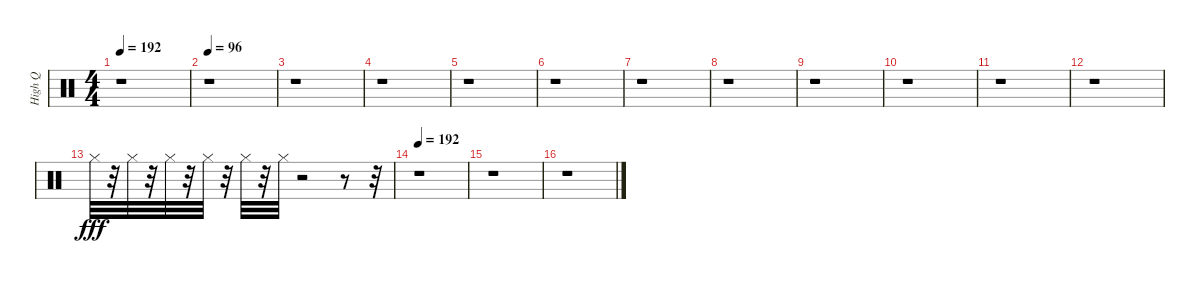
\track ("High Q" "High Q") {instrument percussion}
\staff {score}
\articulation defaults
\ts (4 4)
\tempo 192
\clef neutral
\ks c
r.1{dy fff} |
\tempo 96
r.1 |
r.1 |
r.1 |
r.1 |
r.1 |
r.1 |
r.1 |
r.1 |
r.1 |
r.1 |
r.1 |
"Hi-Hat (closed)".32 r.32 "Hi-Hat (closed)".32 r.32 "Hi-Hat (closed)".32 r.32 "Hi-Hat (closed)".32 r.32 "Hi-Hat (closed)".32 r.32 "Hi-Hat (closed)".32 r.2 r.8 r.32 |
\tempo 192
r.1 |
r.1 |
r.1
